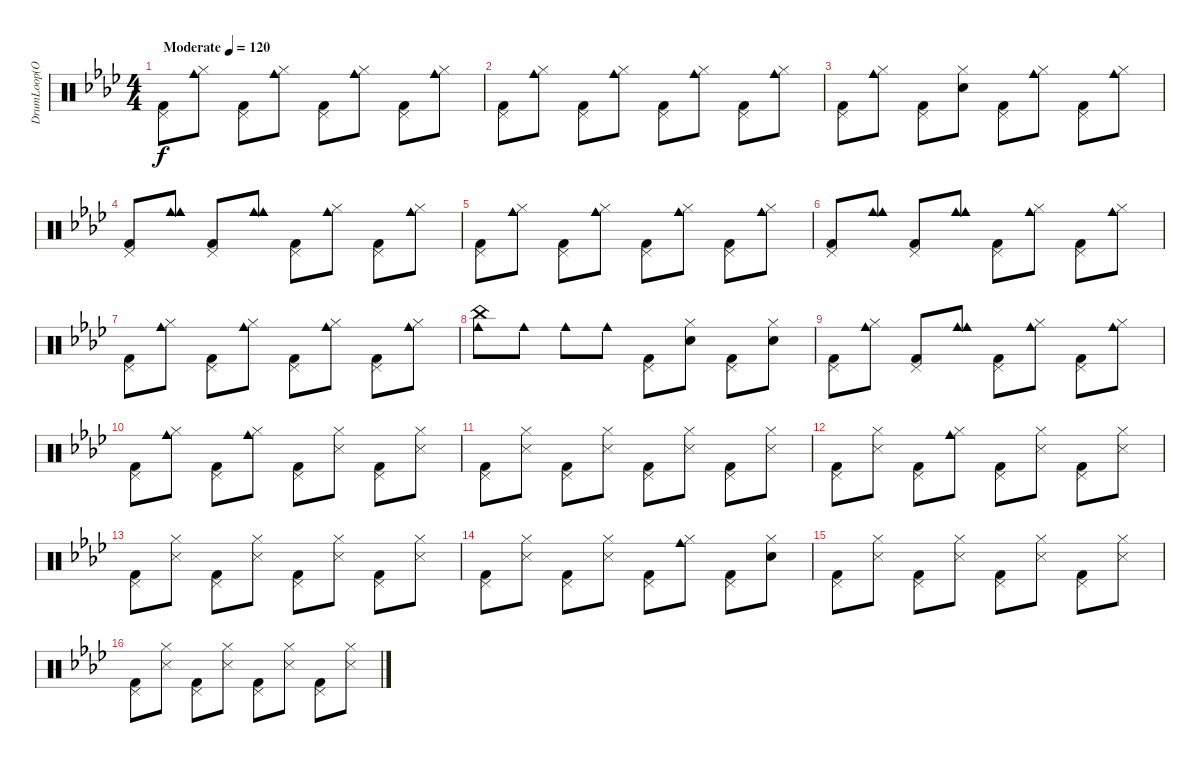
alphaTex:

\track ("DrumLoop(Optinal)" "DrumLoop(O") {solo instrument percussion}
\staff {score}
\articulation defaults
\ts (4 4)
\tempo (120 "Moderate")
\clef neutral
\ks ab
("Pedal Hi-Hat (hit)" "Kick (hit) 2").8{dy f} ("Hi-Hat (closed)" "Cowbell medium (hit)").8 ("Pedal Hi-Hat (hit)" "Kick (hit) 2").8 ("Hi-Hat (closed)" "Cowbell medium (hit)").8 ("Pedal Hi-Hat (hit)" "Kick (hit) 2").8 ("Hi-Hat (closed)" "Cowbell medium (hit)").8 ("Pedal Hi-Hat (hit)" "Kick (hit) 2").8 ("Hi-Hat (closed)" "Cowbell medium (hit)").8 |
("Pedal Hi-Hat (hit)" "Kick (hit) 2").8 ("Hi-Hat (closed)" "Cowbell medium (hit)").8 ("Pedal Hi-Hat (hit)" "Kick (hit) 2").8 ("Hi-Hat (closed)" "Cowbell medium (hit)").8 ("Pedal Hi-Hat (hit)" "Kick (hit) 2").8 ("Hi-Hat (closed)" "Cowbell medium (hit)").8 ("Pedal Hi-Hat (hit)" "Kick (hit) 2").8 ("Hi-Hat (closed)" "Cowbell medium (hit)").8 |
("Pedal Hi-Hat (hit)" "Kick (hit) 2").8 ("Hi-Hat (closed)" "Cowbell medium (hit)").8 ("Pedal Hi-Hat (hit)" "Kick (hit) 2").8 ("Hi-Hat (closed)" "Snare (hit) 2").8 ("Pedal Hi-Hat (hit)" "Kick (hit) 2").8 ("Hi-Hat (closed)" "Cowbell medium (hit)").8 ("Pedal Hi-Hat (hit)" "Kick (hit) 2").8 ("Hi-Hat (closed)" "Cowbell medium (hit)").8 |
("Pedal Hi-Hat (hit)" "Kick (hit) 2").8 ("Cowbell medium (hit)" "Cowbell medium (hit)").8 ("Pedal Hi-Hat (hit)" "Kick (hit) 2").8 ("Cowbell medium (hit)" "Cowbell medium (hit)").8 ("Pedal Hi-Hat (hit)" "Kick (hit) 2").8 ("Hi-Hat (closed)" "Cowbell medium (hit)").8 ("Pedal Hi-Hat (hit)" "Kick (hit) 2").8 ("Hi-Hat (closed)" "Cowbell medium (hit)").8 |
("Pedal Hi-Hat (hit)" "Kick (hit) 2").8 ("Hi-Hat (closed)" "Cowbell medium (hit)").8 ("Pedal Hi-Hat (hit)" "Kick (hit) 2").8 ("Hi-Hat (closed)" "Cowbell medium (hit)").8 ("Pedal Hi-Hat (hit)" "Kick (hit) 2").8 ("Hi-Hat (closed)" "Cowbell medium (hit)").8 ("Pedal Hi-Hat (hit)" "Kick (hit) 2").8 ("Hi-Hat (closed)" "Cowbell medium (hit)").8 |
("Pedal Hi-Hat (hit)" "Kick (hit) 2").8 ("Cowbell medium (hit)" "Cowbell medium (hit)").8 ("Pedal Hi-Hat (hit)" "Kick (hit) 2").8 ("Cowbell medium (hit)" "Cowbell medium (hit)").8 ("Pedal Hi-Hat (hit)" "Kick (hit) 2").8 ("Hi-Hat (closed)" "Cowbell medium (hit)").8 ("Pedal Hi-Hat (hit)" "Kick (hit) 2").8 ("Hi-Hat (closed)" "Cowbell medium (hit)").8 |
("Pedal Hi-Hat (hit)" "Kick (hit) 2").8 ("Hi-Hat (closed)" "Cowbell medium (hit)").8 ("Pedal Hi-Hat (hit)" "Kick (hit) 2").8 ("Hi-Hat (closed)" "Cowbell medium (hit)").8 ("Pedal Hi-Hat (hit)" "Kick (hit) 2").8 ("Hi-Hat (closed)" "Cowbell medium (hit)").8 ("Pedal Hi-Hat (hit)" "Kick (hit) 2").8 ("Hi-Hat (closed)" "Cowbell medium (hit)").8 |
("China (hit)" "Cowbell medium (hit)").8 "Cowbell medium (hit)".8 "Cowbell medium (hit)".8 "Cowbell medium (hit)".8 ("Pedal Hi-Hat (hit)" "Kick (hit) 2").8 ("Hi-Hat (closed)" "Snare (hit) 2").8 ("Pedal Hi-Hat (hit)" "Kick (hit) 2").8 ("Hi-Hat (closed)" "Snare (hit) 2").8 |
("Pedal Hi-Hat (hit)" "Kick (hit) 2").8 ("Hi-Hat (closed)" "Cowbell medium (hit)").8 ("Pedal Hi-Hat (hit)" "Kick (hit) 2").8 ("Cowbell medium (hit)" "Cowbell medium (hit)").8 ("Pedal Hi-Hat (hit)" "Kick (hit) 2").8 ("Hi-Hat (closed)" "Cowbell medium (hit)").8 ("Pedal Hi-Hat (hit)" "Kick (hit) 2").8 ("Hi-Hat (closed)" "Cowbell medium (hit)").8 |
("Pedal Hi-Hat (hit)" "Kick (hit) 2").8 ("Hi-Hat (closed)" "Cowbell medium (hit)").8 ("Pedal Hi-Hat (hit)" "Kick (hit) 2").8 ("Hi-Hat (closed)" "Cowbell medium (hit)").8 ("Pedal Hi-Hat (hit)" "Kick (hit) 2").8 ("Hi-Hat (closed)" "Metronome (hit)").8 ("Pedal Hi-Hat (hit)" "Kick (hit) 2").8 ("Hi-Hat (closed)" "Metronome (hit)").8 |
("Pedal Hi-Hat (hit)" "Kick (hit) 2").8 ("Hi-Hat (closed)" "Metronome (hit)").8 ("Pedal Hi-Hat (hit)" "Kick (hit) 2").8 ("Hi-Hat (closed)" "Metronome (hit)").8 ("Pedal Hi-Hat (hit)" "Kick (hit) 2").8 ("Hi-Hat (closed)" "Metronome (hit)").8 ("Pedal Hi-Hat (hit)" "Kick (hit) 2").8 ("Hi-Hat (closed)" "Metronome (hit)").8 |
("Pedal Hi-Hat (hit)" "Kick (hit) 2").8 ("Hi-Hat (closed)" "Metronome (hit)").8 ("Pedal Hi-Hat (hit)" "Kick (hit) 2").8 ("Hi-Hat (closed)" "Cowbell medium (hit)").8 ("Pedal Hi-Hat (hit)" "Kick (hit) 2").8 ("Hi-Hat (closed)" "Metronome (hit)").8 ("Pedal Hi-Hat (hit)" "Kick (hit) 2").8 ("Hi-Hat (closed)" "Metronome (hit)").8 |
("Pedal Hi-Hat (hit)" "Kick (hit) 2").8 ("Hi-Hat (closed)" "Metronome (hit)").8 ("Pedal Hi-Hat (hit)" "Kick (hit) 2").8 ("Hi-Hat (closed)" "Metronome (hit)").8 ("Pedal Hi-Hat (hit)" "Kick (hit) 2").8 ("Hi-Hat (closed)" "Metronome (hit)").8 ("Pedal Hi-Hat (hit)" "Kick (hit) 2").8 ("Hi-Hat (closed)" "Metronome (hit)").8 |
("Pedal Hi-Hat (hit)" "Kick (hit) 2").8 ("Hi-Hat (closed)" "Metronome (hit)").8 ("Pedal Hi-Hat (hit)" "Kick (hit) 2").8 ("Hi-Hat (closed)" "Metronome (hit)").8 ("Pedal Hi-Hat (hit)" "Kick (hit) 2").8 ("Hi-Hat (closed)" "Cowbell medium (hit)").8 ("Pedal Hi-Hat (hit)" "Kick (hit) 2").8 ("Hi-Hat (closed)" "Snare (hit) 2").8 |
("Pedal Hi-Hat (hit)" "Kick (hit) 2").8 ("Hi-Hat (closed)" "Metronome (hit)").8 ("Pedal Hi-Hat (hit)" "Kick (hit) 2").8 ("Hi-Hat (closed)" "Metronome (hit)").8 ("Pedal Hi-Hat (hit)" "Kick (hit) 2").8 ("Hi-Hat (closed)" "Metronome (hit)").8 ("Pedal Hi-Hat (hit)" "Kick (hit) 2").8 ("Hi-Hat (closed)" "Metronome (hit)").8 |
("Pedal Hi-Hat (hit)" "Kick (hit) 2").8 ("Hi-Hat (closed)" "Metronome (hit)").8 ("Pedal Hi-Hat (hit)" "Kick (hit) 2").8 ("Hi-Hat (closed)" "Metronome (hit)").8 ("Pedal Hi-Hat (hit)" "Kick (hit) 2").8 ("Hi-Hat (closed)" "Metronome (hit)").8 ("Pedal Hi-Hat (hit)" "Kick (hit) 2").8 ("Hi-Hat (closed)" "Metronome (hit)").8
